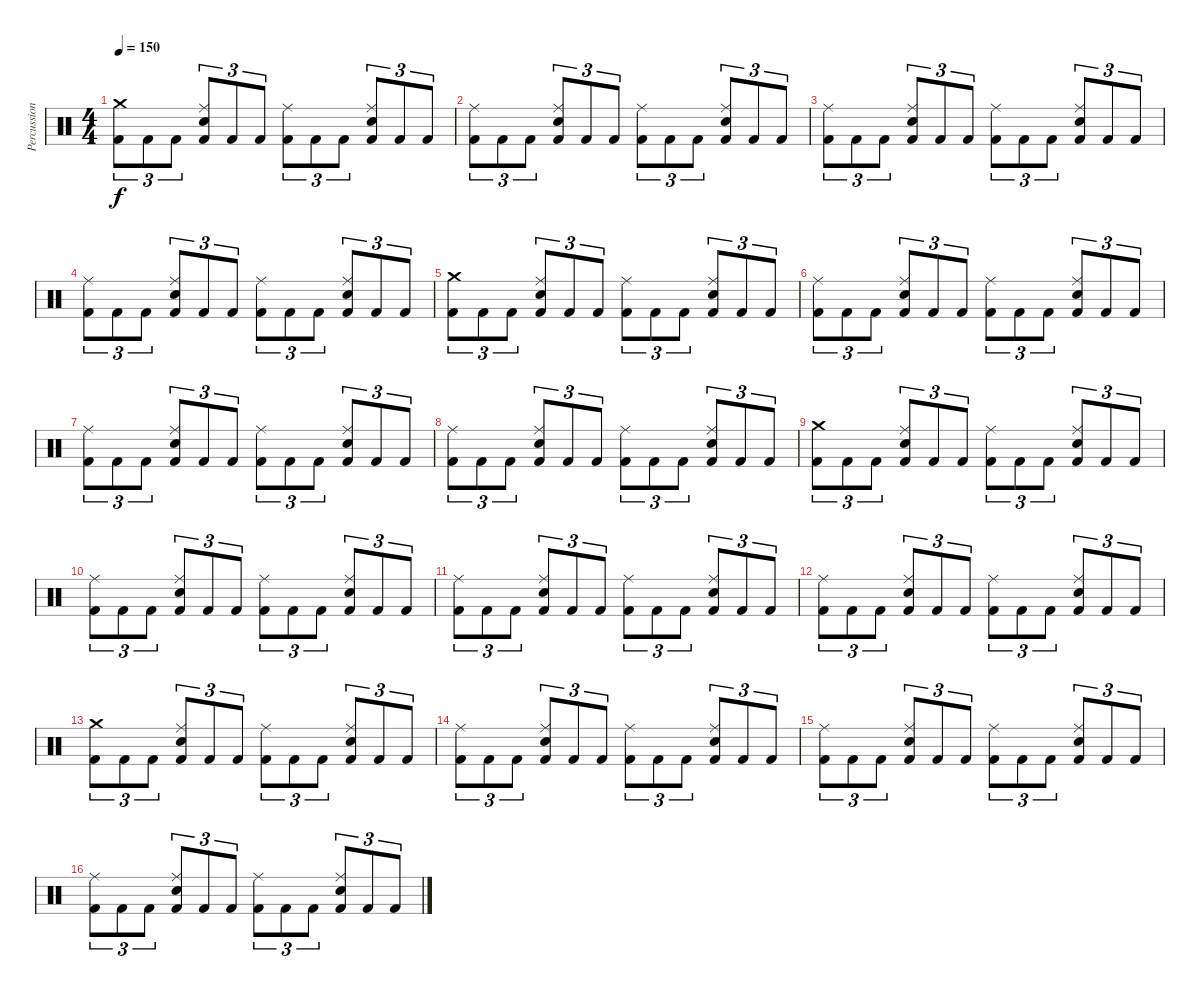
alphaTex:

\track ("Percussion" "Percussion") {instrument percussion}
\staff {score}
\articulation defaults
\ts (4 4)
\tempo 150
\clef neutral
\ks c
("Crash medium (hit)" "Kick (hit) 2").8{tu (3 2) dy f} "Kick (hit) 2".8{tu (3 2)} "Kick (hit) 2".8{tu (3 2)} ("Ride (middle)" "Electric Snare (hit)" "Kick (hit) 2").8{tu (3 2)} "Kick (hit) 2".8{tu (3 2)} "Kick (hit) 2".8{tu (3 2)} ("Ride (middle)" "Kick (hit) 2").8{tu (3 2)} "Kick (hit) 2".8{tu (3 2)} "Kick (hit) 2".8{tu (3 2)} ("Ride (middle)" "Electric Snare (hit)" "Kick (hit) 2").8{tu (3 2)} "Kick (hit) 2".8{tu (3 2)} "Kick (hit) 2".8{tu (3 2)} |
("Ride (middle)" "Kick (hit) 2").8{tu (3 2)} "Kick (hit) 2".8{tu (3 2)} "Kick (hit) 2".8{tu (3 2)} ("Ride (middle)" "Electric Snare (hit)" "Kick (hit) 2").8{tu (3 2)} "Kick (hit) 2".8{tu (3 2)} "Kick (hit) 2".8{tu (3 2)} ("Ride (middle)" "Kick (hit) 2").8{tu (3 2)} "Kick (hit) 2".8{tu (3 2)} "Kick (hit) 2".8{tu (3 2)} ("Ride (middle)" "Electric Snare (hit)" "Kick (hit) 2").8{tu (3 2)} "Kick (hit) 2".8{tu (3 2)} "Kick (hit) 2".8{tu (3 2)} |
("Ride (middle)" "Kick (hit) 2").8{tu (3 2)} "Kick (hit) 2".8{tu (3 2)} "Kick (hit) 2".8{tu (3 2)} ("Ride (middle)" "Electric Snare (hit)" "Kick (hit) 2").8{tu (3 2)} "Kick (hit) 2".8{tu (3 2)} "Kick (hit) 2".8{tu (3 2)} ("Ride (middle)" "Kick (hit) 2").8{tu (3 2)} "Kick (hit) 2".8{tu (3 2)} "Kick (hit) 2".8{tu (3 2)} ("Ride (middle)" "Electric Snare (hit)" "Kick (hit) 2").8{tu (3 2)} "Kick (hit) 2".8{tu (3 2)} "Kick (hit) 2".8{tu (3 2)} |
("Ride (middle)" "Kick (hit) 2").8{tu (3 2)} "Kick (hit) 2".8{tu (3 2)} "Kick (hit) 2".8{tu (3 2)} ("Ride (middle)" "Electric Snare (hit)" "Kick (hit) 2").8{tu (3 2)} "Kick (hit) 2".8{tu (3 2)} "Kick (hit) 2".8{tu (3 2)} ("Ride (middle)" "Kick (hit) 2").8{tu (3 2)} "Kick (hit) 2".8{tu (3 2)} "Kick (hit) 2".8{tu (3 2)} ("Ride (middle)" "Electric Snare (hit)" "Kick (hit) 2").8{tu (3 2)} "Kick (hit) 2".8{tu (3 2)} "Kick (hit) 2".8{tu (3 2)} |
("Crash medium (hit)" "Kick (hit) 2").8{tu (3 2)} "Kick (hit) 2".8{tu (3 2)} "Kick (hit) 2".8{tu (3 2)} ("Ride (middle)" "Electric Snare (hit)" "Kick (hit) 2").8{tu (3 2)} "Kick (hit) 2".8{tu (3 2)} "Kick (hit) 2".8{tu (3 2)} ("Ride (middle)" "Kick (hit) 2").8{tu (3 2)} "Kick (hit) 2".8{tu (3 2)} "Kick (hit) 2".8{tu (3 2)} ("Ride (middle)" "Electric Snare (hit)" "Kick (hit) 2").8{tu (3 2)} "Kick (hit) 2".8{tu (3 2)} "Kick (hit) 2".8{tu (3 2)} |
("Ride (middle)" "Kick (hit) 2").8{tu (3 2)} "Kick (hit) 2".8{tu (3 2)} "Kick (hit) 2".8{tu (3 2)} ("Ride (middle)" "Electric Snare (hit)" "Kick (hit) 2").8{tu (3 2)} "Kick (hit) 2".8{tu (3 2)} "Kick (hit) 2".8{tu (3 2)} ("Ride (middle)" "Kick (hit) 2").8{tu (3 2)} "Kick (hit) 2".8{tu (3 2)} "Kick (hit) 2".8{tu (3 2)} ("Ride (middle)" "Electric Snare (hit)" "Kick (hit) 2").8{tu (3 2)} "Kick (hit) 2".8{tu (3 2)} "Kick (hit) 2".8{tu (3 2)} |
("Ride (middle)" "Kick (hit) 2").8{tu (3 2)} "Kick (hit) 2".8{tu (3 2)} "Kick (hit) 2".8{tu (3 2)} ("Ride (middle)" "Electric Snare (hit)" "Kick (hit) 2").8{tu (3 2)} "Kick (hit) 2".8{tu (3 2)} "Kick (hit) 2".8{tu (3 2)} ("Ride (middle)" "Kick (hit) 2").8{tu (3 2)} "Kick (hit) 2".8{tu (3 2)} "Kick (hit) 2".8{tu (3 2)} ("Ride (middle)" "Electric Snare (hit)" "Kick (hit) 2").8{tu (3 2)} "Kick (hit) 2".8{tu (3 2)} "Kick (hit) 2".8{tu (3 2)} |
("Ride (middle)" "Kick (hit) 2").8{tu (3 2)} "Kick (hit) 2".8{tu (3 2)} "Kick (hit) 2".8{tu (3 2)} ("Ride (middle)" "Electric Snare (hit)" "Kick (hit) 2").8{tu (3 2)} "Kick (hit) 2".8{tu (3 2)} "Kick (hit) 2".8{tu (3 2)} ("Ride (middle)" "Kick (hit) 2").8{tu (3 2)} "Kick (hit) 2".8{tu (3 2)} "Kick (hit) 2".8{tu (3 2)} ("Ride (middle)" "Electric Snare (hit)" "Kick (hit) 2").8{tu (3 2)} "Kick (hit) 2".8{tu (3 2)} "Kick (hit) 2".8{tu (3 2)} |
("Crash medium (hit)" "Kick (hit) 2").8{tu (3 2)} "Kick (hit) 2".8{tu (3 2)} "Kick (hit) 2".8{tu (3 2)} ("Ride (middle)" "Electric Snare (hit)" "Kick (hit) 2").8{tu (3 2)} "Kick (hit) 2".8{tu (3 2)} "Kick (hit) 2".8{tu (3 2)} ("Ride (middle)" "Kick (hit) 2").8{tu (3 2)} "Kick (hit) 2".8{tu (3 2)} "Kick (hit) 2".8{tu (3 2)} ("Ride (middle)" "Electric Snare (hit)" "Kick (hit) 2").8{tu (3 2)} "Kick (hit) 2".8{tu (3 2)} "Kick (hit) 2".8{tu (3 2)} |
("Ride (middle)" "Kick (hit) 2").8{tu (3 2)} "Kick (hit) 2".8{tu (3 2)} "Kick (hit) 2".8{tu (3 2)} ("Ride (middle)" "Electric Snare (hit)" "Kick (hit) 2").8{tu (3 2)} "Kick (hit) 2".8{tu (3 2)} "Kick (hit) 2".8{tu (3 2)} ("Ride (middle)" "Kick (hit) 2").8{tu (3 2)} "Kick (hit) 2".8{tu (3 2)} "Kick (hit) 2".8{tu (3 2)} ("Ride (middle)" "Electric Snare (hit)" "Kick (hit) 2").8{tu (3 2)} "Kick (hit) 2".8{tu (3 2)} "Kick (hit) 2".8{tu (3 2)} |
("Ride (middle)" "Kick (hit) 2").8{tu (3 2)} "Kick (hit) 2".8{tu (3 2)} "Kick (hit) 2".8{tu (3 2)} ("Ride (middle)" "Electric Snare (hit)" "Kick (hit) 2").8{tu (3 2)} "Kick (hit) 2".8{tu (3 2)} "Kick (hit) 2".8{tu (3 2)} ("Ride (middle)" "Kick (hit) 2").8{tu (3 2)} "Kick (hit) 2".8{tu (3 2)} "Kick (hit) 2".8{tu (3 2)} ("Ride (middle)" "Electric Snare (hit)" "Kick (hit) 2").8{tu (3 2)} "Kick (hit) 2".8{tu (3 2)} "Kick (hit) 2".8{tu (3 2)} |
("Ride (middle)" "Kick (hit) 2").8{tu (3 2)} "Kick (hit) 2".8{tu (3 2)} "Kick (hit) 2".8{tu (3 2)} ("Ride (middle)" "Electric Snare (hit)" "Kick (hit) 2").8{tu (3 2)} "Kick (hit) 2".8{tu (3 2)} "Kick (hit) 2".8{tu (3 2)} ("Ride (middle)" "Kick (hit) 2").8{tu (3 2)} "Kick (hit) 2".8{tu (3 2)} "Kick (hit) 2".8{tu (3 2)} ("Ride (middle)" "Electric Snare (hit)" "Kick (hit) 2").8{tu (3 2)} "Kick (hit) 2".8{tu (3 2)} "Kick (hit) 2".8{tu (3 2)} |
("Crash medium (hit)" "Kick (hit) 2").8{tu (3 2)} "Kick (hit) 2".8{tu (3 2)} "Kick (hit) 2".8{tu (3 2)} ("Ride (middle)" "Electric Snare (hit)" "Kick (hit) 2").8{tu (3 2)} "Kick (hit) 2".8{tu (3 2)} "Kick (hit) 2".8{tu (3 2)} ("Ride (middle)" "Kick (hit) 2").8{tu (3 2)} "Kick (hit) 2".8{tu (3 2)} "Kick (hit) 2".8{tu (3 2)} ("Ride (middle)" "Electric Snare (hit)" "Kick (hit) 2").8{tu (3 2)} "Kick (hit) 2".8{tu (3 2)} "Kick (hit) 2".8{tu (3 2)} |
("Ride (middle)" "Kick (hit) 2").8{tu (3 2)} "Kick (hit) 2".8{tu (3 2)} "Kick (hit) 2".8{tu (3 2)} ("Ride (middle)" "Electric Snare (hit)" "Kick (hit) 2").8{tu (3 2)} "Kick (hit) 2".8{tu (3 2)} "Kick (hit) 2".8{tu (3 2)} ("Ride (middle)" "Kick (hit) 2").8{tu (3 2)} "Kick (hit) 2".8{tu (3 2)} "Kick (hit) 2".8{tu (3 2)} ("Ride (middle)" "Electric Snare (hit)" "Kick (hit) 2").8{tu (3 2)} "Kick (hit) 2".8{tu (3 2)} "Kick (hit) 2".8{tu (3 2)} |
("Ride (middle)" "Kick (hit) 2").8{tu (3 2)} "Kick (hit) 2".8{tu (3 2)} "Kick (hit) 2".8{tu (3 2)} ("Ride (middle)" "Electric Snare (hit)" "Kick (hit) 2").8{tu (3 2)} "Kick (hit) 2".8{tu (3 2)} "Kick (hit) 2".8{tu (3 2)} ("Ride (middle)" "Kick (hit) 2").8{tu (3 2)} "Kick (hit) 2".8{tu (3 2)} "Kick (hit) 2".8{tu (3 2)} ("Ride (middle)" "Electric Snare (hit)" "Kick (hit) 2").8{tu (3 2)} "Kick (hit) 2".8{tu (3 2)} "Kick (hit) 2".8{tu (3 2)} |
("Ride (middle)" "Kick (hit) 2").8{tu (3 2)} "Kick (hit) 2".8{tu (3 2)} "Kick (hit) 2".8{tu (3 2)} ("Ride (middle)" "Electric Snare (hit)" "Kick (hit) 2").8{tu (3 2)} "Kick (hit) 2".8{tu (3 2)} "Kick (hit) 2".8{tu (3 2)} ("Ride (middle)" "Kick (hit) 2").8{tu (3 2)} "Kick (hit) 2".8{tu (3 2)} "Kick (hit) 2".8{tu (3 2)} ("Ride (middle)" "Electric Snare (hit)" "Kick (hit) 2").8{tu (3 2)} "Kick (hit) 2".8{tu (3 2)} "Kick (hit) 2".8{tu (3 2)}
